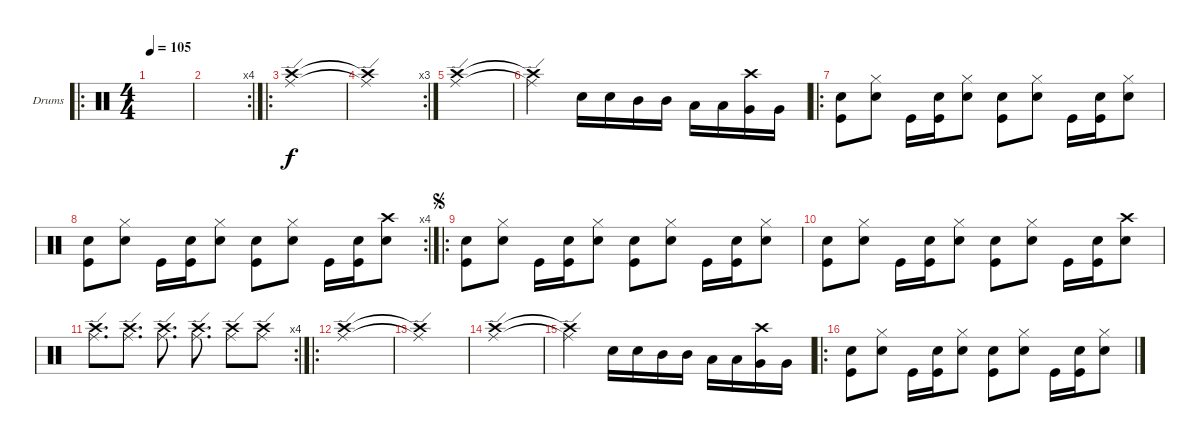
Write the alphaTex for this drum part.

\defaultSystemsLayout 4
\bracketExtendMode groupsimilarinstruments
\firstSystemTrackNameOrientation horizontal
\otherSystemsTrackNameOrientation horizontal
\track ("Drums" "Drums") {instrument percussion}
\staff {score}
\articulation defaults
\ro
\ts (4 4)
\tempo 105
\clef neutral
\scale
0.465021
\ks c
|
\rc 4
\scale
0.255144 |
\ro
\scale
0.279835 ("Ride (edge)" "Crash high (hit)").1 |
\rc 3
("Ride (edge)"{t} "Crash high (hit)"{t}).1 |
("Ride (edge)" "Crash high (hit)").1 |
("Ride (edge)"{t} "Crash high (hit)"{t}).2 "Snare (hit) 2".16 "Snare (hit) 2".16 "Mid Tom (hit)".16 "Mid Tom (hit)".16 "Low Tom (hit)".16 "Low Tom (hit)".16 ("Very Low Tom (hit)" "Crash high (hit)").16 "Very Low Tom (hit)".16 |
\ro
("Kick (hit)" "Snare (hit) 2").8 ("Snare (hit) 2" "Hi-Hat (closed)").8 "Kick (hit)".16 ("Snare (hit) 2" "Kick (hit)").16 ("Snare (hit) 2" "Hi-Hat (closed)").8 ("Snare (hit) 2" "Kick (hit)").8 ("Snare (hit) 2" "Hi-Hat (closed)").8 "Kick (hit)".16 ("Snare (hit) 2" "Kick (hit)").16 ("Snare (hit) 2" "Hi-Hat (closed)").8 |
\rc 4
("Kick (hit)" "Snare (hit) 2").8 ("Snare (hit) 2" "Hi-Hat (closed)").8 "Kick (hit)".16 ("Snare (hit) 2" "Kick (hit)").16 ("Snare (hit) 2" "Hi-Hat (closed)").8 ("Snare (hit) 2" "Kick (hit)").8 ("Snare (hit) 2" "Hi-Hat (closed)").8 "Kick (hit)".16 ("Snare (hit) 2" "Kick (hit)").16 ("Snare (hit) 2" "Crash high (hit)").8 |
\ro
\jump segno
("Kick (hit)" "Snare (hit) 2").8 ("Snare (hit) 2" "Hi-Hat (closed)").8 "Kick (hit)".16 ("Snare (hit) 2" "Kick (hit)").16 ("Snare (hit) 2" "Hi-Hat (closed)").8 ("Snare (hit) 2" "Kick (hit)").8 ("Snare (hit) 2" "Hi-Hat (closed)").8 "Kick (hit)".16 ("Snare (hit) 2" "Kick (hit)").16 ("Snare (hit) 2" "Hi-Hat (closed)").8 |
("Kick (hit)" "Snare (hit) 2").8 ("Snare (hit) 2" "Hi-Hat (closed)").8 "Kick (hit)".16 ("Snare (hit) 2" "Kick (hit)").16 ("Snare (hit) 2" "Hi-Hat (closed)").8 ("Snare (hit) 2" "Kick (hit)").8 ("Snare (hit) 2" "Hi-Hat (closed)").8 "Kick (hit)".16 ("Snare (hit) 2" "Kick (hit)").16 ("Snare (hit) 2" "Crash high (hit)").8 |
\rc 4
("Ride (edge)" "Crash high (hit)").8{d} ("Ride (edge)" "Crash high (hit)").8{d} ("Ride (edge)" "Crash high (hit)").8{d} ("Ride (edge)" "Crash high (hit)").8{d} ("Ride (edge)" "Crash high (hit)").8 ("Ride (edge)" "Crash high (hit)").8 |
\ro
("Ride (edge)" "Crash high (hit)").1 |
("Ride (edge)"{t} "Crash high (hit)"{t}).1 |
("Ride (edge)" "Crash high (hit)").1 |
("Ride (edge)"{t} "Crash high (hit)"{t}).2 "Snare (hit) 2".16 "Snare (hit) 2".16 "Mid Tom (hit)".16 "Mid Tom (hit)".16 "Low Tom (hit)".16 "Low Tom (hit)".16 ("Very Low Tom (hit)" "Crash high (hit)").16 "Very Low Tom (hit)".16 |
\ro
("Kick (hit)" "Snare (hit) 2").8 ("Snare (hit) 2" "Hi-Hat (closed)").8 "Kick (hit)".16 ("Snare (hit) 2" "Kick (hit)").16 ("Snare (hit) 2" "Hi-Hat (closed)").8 ("Snare (hit) 2" "Kick (hit)").8 ("Snare (hit) 2" "Hi-Hat (closed)").8 "Kick (hit)".16 ("Snare (hit) 2" "Kick (hit)").16 ("Snare (hit) 2" "Hi-Hat (closed)").8
